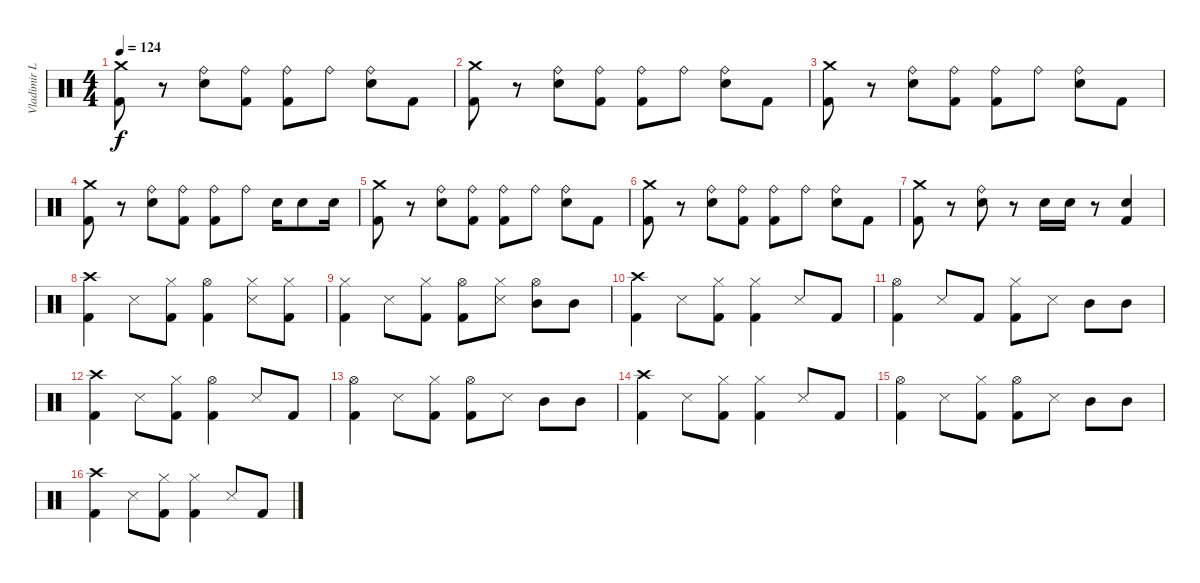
\track ("Vladimir L." "Vladimir L") {instrument percussion}
\staff {score}
\articulation defaults
\ts (4 4)
\tempo 124
\clef neutral
\ks c
("Kick (hit) 2" "Crash medium (hit)").8{dy f} r.8 ("Electric Snare (hit)" "Ride (bell)").8 ("Kick (hit) 2" "Ride (bell)").8 ("Kick (hit) 2" "Ride (bell)").8 "Ride (bell)".8 ("Electric Snare (hit)" "Ride (bell)").8 "Kick (hit) 2".8 |
("Kick (hit) 2" "Crash medium (hit)").8 r.8 ("Electric Snare (hit)" "Ride (bell)").8 ("Kick (hit) 2" "Ride (bell)").8 ("Kick (hit) 2" "Ride (bell)").8 "Ride (bell)".8 ("Electric Snare (hit)" "Ride (bell)").8 "Kick (hit) 2".8 |
("Kick (hit) 2" "Crash medium (hit)").8 r.8 ("Electric Snare (hit)" "Ride (bell)").8 ("Kick (hit) 2" "Ride (bell)").8 ("Kick (hit) 2" "Ride (bell)").8 "Ride (bell)".8 ("Electric Snare (hit)" "Ride (bell)").8 "Kick (hit) 2".8 |
("Kick (hit) 2" "Crash medium (hit)").8 r.8 ("Electric Snare (hit)" "Ride (bell)").8 ("Kick (hit) 2" "Ride (bell)").8 ("Kick (hit) 2" "Ride (bell)").8 "Ride (bell)".8 "Electric Snare (hit)".16 "Electric Snare (hit)".8 "Electric Snare (hit)".16 |
("Kick (hit) 2" "Crash medium (hit)").8 r.8 ("Electric Snare (hit)" "Ride (bell)").8 ("Kick (hit) 2" "Ride (bell)").8 ("Kick (hit) 2" "Ride (bell)").8 "Ride (bell)".8 ("Electric Snare (hit)" "Ride (bell)").8 "Kick (hit) 2".8 |
("Kick (hit) 2" "Crash medium (hit)").8 r.8 ("Electric Snare (hit)" "Ride (bell)").8 ("Kick (hit) 2" "Ride (bell)").8 ("Kick (hit) 2" "Ride (bell)").8 "Ride (bell)".8 ("Electric Snare (hit)" "Ride (bell)").8 "Kick (hit) 2".8 |
("Kick (hit) 2" "Crash medium (hit)").8 r.8 ("Electric Snare (hit)" "Ride (bell)").8 r.8 "Electric Snare (hit)".16 "Electric Snare (hit)".16 r.8 ("Electric Snare (hit)" "Kick (hit) 2").4 |
("Kick (hit) 2" "Crash high (hit)").4 "Snare (side stick) 3".8 ("Kick (hit) 2" "Hi-Hat (closed)").8 ("Kick (hit) 2" "Hi-Hat (open)").4 ("Snare (side stick) 3" "Hi-Hat (closed)").8 ("Kick (hit) 2" "Hi-Hat (closed)").8 |
("Kick (hit) 2" "Hi-Hat (closed)").4 "Snare (side stick) 3".8 ("Kick (hit) 2" "Hi-Hat (closed)").8 ("Kick (hit) 2" "Hi-Hat (open)").8 ("Snare (side stick) 3" "Hi-Hat (closed)").8 ("Mid Tom (hit)" "Hi-Hat (open)").8 "Mid Tom (hit)".8 |
("Kick (hit) 2" "Crash high (hit)").4 "Snare (side stick) 3".8 ("Kick (hit) 2" "Hi-Hat (closed)").8 ("Kick (hit) 2" "Hi-Hat (closed)").4 "Snare (side stick) 3".8 "Kick (hit) 2".8 |
("Kick (hit) 2" "Hi-Hat (open)").4 "Snare (side stick) 3".8 "Kick (hit) 2".8 ("Kick (hit) 2" "Hi-Hat (closed)").8 "Snare (side stick) 3".8 "Mid Tom (hit)".8 "Mid Tom (hit)".8 |
("Kick (hit) 2" "Crash high (hit)").4 "Snare (side stick) 3".8 ("Kick (hit) 2" "Hi-Hat (closed)").8 ("Kick (hit) 2" "Hi-Hat (open)").4 "Snare (side stick) 3".8 "Kick (hit) 2".8 |
("Kick (hit) 2" "Hi-Hat (open)").4 "Snare (side stick) 3".8 ("Kick (hit) 2" "Hi-Hat (closed)").8 ("Kick (hit) 2" "Hi-Hat (open)").8 "Snare (side stick) 3".8 "Mid Tom (hit)".8 "Mid Tom (hit)".8 |
("Kick (hit) 2" "Crash high (hit)").4 "Snare (side stick) 3".8 ("Kick (hit) 2" "Hi-Hat (closed)").8 ("Kick (hit) 2" "Hi-Hat (closed)").4 "Snare (side stick) 3".8 "Kick (hit) 2".8 |
("Kick (hit) 2" "Hi-Hat (open)").4 "Snare (side stick) 3".8 ("Kick (hit) 2" "Hi-Hat (closed)").8 ("Kick (hit) 2" "Hi-Hat (open)").8 "Snare (side stick) 3".8 "Mid Tom (hit)".8 "Mid Tom (hit)".8 |
("Kick (hit) 2" "Crash high (hit)").4 "Snare (side stick) 3".8 ("Kick (hit) 2" "Hi-Hat (closed)").8 ("Kick (hit) 2" "Hi-Hat (closed)").4 "Snare (side stick) 3".8 "Kick (hit) 2".8
